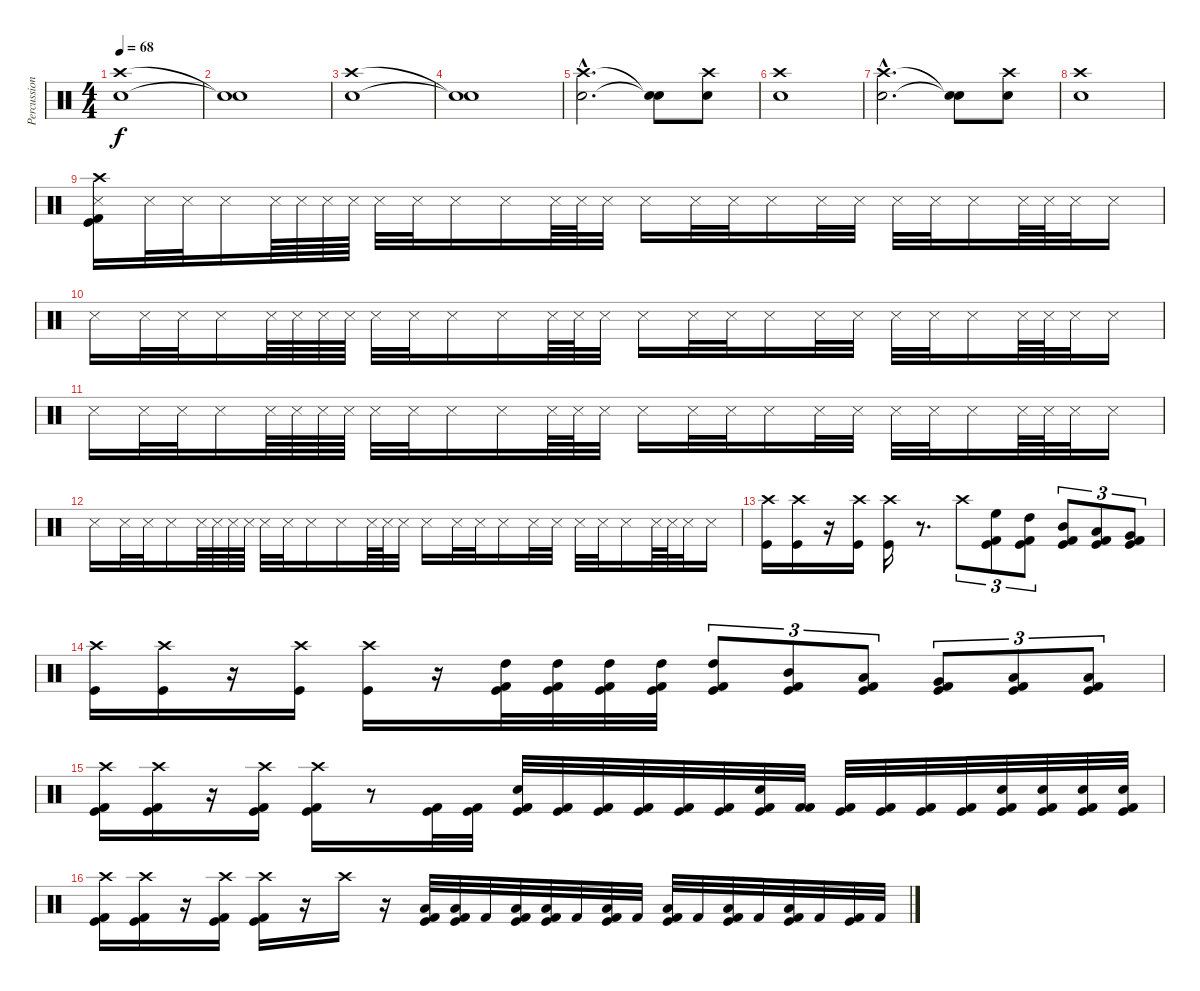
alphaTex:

\track ("Percussion" "Percussion") {instrument percussion}
\staff {score}
\articulation defaults
\ts (4 4)
\tempo 68
\clef neutral
\ks c
("Snare (hit) 2" "Crash high (hit)").1{dy f} |
("Snare (hit)"{t} "Snare (hit)"{t}).1 |
("Snare (hit) 2" "Crash high (hit)").1 |
("Snare (hit)"{t} "Snare (hit)"{t}).1 |
("Snare (hit) 2"{hac} "Crash high (hit)"{hac}).2{d} ("Snare (hit)"{t} "Snare (hit)"{t}).8 ("Snare (hit) 2" "Crash high (hit)").8 |
("Snare (hit) 2" "Crash high (hit)").1 |
("Snare (hit) 2"{hac} "Crash high (hit)"{hac}).2{d} ("Snare (hit)"{t} "Snare (hit)"{t}).8 ("Snare (hit) 2" "Crash high (hit)").8 |
("Snare (hit) 2" "Crash high (hit)").1 |
\section ("" "")
("Kick (hit)" "Kick (hit) 2" "Snare (side stick) 3" "Crash high (hit)").16{balance 3} "Snare (side stick) 3".32 "Snare (side stick) 3".32 "Snare (side stick) 3".16 "Snare (side stick) 3".64 "Snare (side stick) 3".64 "Snare (side stick) 3".64 "Snare (side stick) 3".64 "Snare (side stick) 3".32 "Snare (side stick) 3".32 "Snare (side stick) 3".16 "Snare (side stick) 3".16 "Snare (side stick) 3".64 "Snare (side stick) 3".64 "Snare (side stick) 3".32 "Snare (side stick) 3".16{balance 13} "Snare (side stick) 3".32 "Snare (side stick) 3".32 "Snare (side stick) 3".16 "Snare (side stick) 3".32 "Snare (side stick) 3".32 "Snare (side stick) 3".32 "Snare (side stick) 3".32 "Snare (side stick) 3".16 "Snare (side stick) 3".64 "Snare (side stick) 3".64 "Snare (side stick) 3".32 "Snare (side stick) 3".16 |
"Snare (side stick) 3".16{balance 3} "Snare (side stick) 3".32 "Snare (side stick) 3".32 "Snare (side stick) 3".16 "Snare (side stick) 3".64 "Snare (side stick) 3".64 "Snare (side stick) 3".64 "Snare (side stick) 3".64 "Snare (side stick) 3".32 "Snare (side stick) 3".32 "Snare (side stick) 3".16 "Snare (side stick) 3".16 "Snare (side stick) 3".64 "Snare (side stick) 3".64 "Snare (side stick) 3".32 "Snare (side stick) 3".16{balance 13} "Snare (side stick) 3".32 "Snare (side stick) 3".32 "Snare (side stick) 3".16 "Snare (side stick) 3".32 "Snare (side stick) 3".32 "Snare (side stick) 3".32 "Snare (side stick) 3".32 "Snare (side stick) 3".16 "Snare (side stick) 3".64 "Snare (side stick) 3".64 "Snare (side stick) 3".32 "Snare (side stick) 3".16 |
"Snare (side stick) 3".16{balance 3} "Snare (side stick) 3".32 "Snare (side stick) 3".32 "Snare (side stick) 3".16 "Snare (side stick) 3".64 "Snare (side stick) 3".64 "Snare (side stick) 3".64 "Snare (side stick) 3".64 "Snare (side stick) 3".32 "Snare (side stick) 3".32 "Snare (side stick) 3".16 "Snare (side stick) 3".16 "Snare (side stick) 3".64 "Snare (side stick) 3".64 "Snare (side stick) 3".32 "Snare (side stick) 3".16{balance 13} "Snare (side stick) 3".32 "Snare (side stick) 3".32 "Snare (side stick) 3".16 "Snare (side stick) 3".32 "Snare (side stick) 3".32 "Snare (side stick) 3".32 "Snare (side stick) 3".32 "Snare (side stick) 3".16 "Snare (side stick) 3".64 "Snare (side stick) 3".64 "Snare (side stick) 3".32 "Snare (side stick) 3".16 |
"Snare (side stick) 3".16{balance 3} "Snare (side stick) 3".32 "Snare (side stick) 3".32 "Snare (side stick) 3".16 "Snare (side stick) 3".64 "Snare (side stick) 3".64 "Snare (side stick) 3".64 "Snare (side stick) 3".64 "Snare (side stick) 3".32 "Snare (side stick) 3".32 "Snare (side stick) 3".16 "Snare (side stick) 3".16 "Snare (side stick) 3".64 "Snare (side stick) 3".64 "Snare (side stick) 3".32 "Snare (side stick) 3".16{balance 13} "Snare (side stick) 3".32 "Snare (side stick) 3".32 "Snare (side stick) 3".16 "Snare (side stick) 3".32 "Snare (side stick) 3".32 "Snare (side stick) 3".32 "Snare (side stick) 3".32 "Snare (side stick) 3".16 "Snare (side stick) 3".64 "Snare (side stick) 3".64 "Snare (side stick) 3".32 "Snare (side stick) 3".16 |
("Kick (hit)" "Crash high (hit)").16{balance 8} ("Kick (hit)" "Crash high (hit)").16 r.16 ("Kick (hit)" "Crash high (hit)").16 ("Kick (hit)" "Crash high (hit)").16 r.8{d} "Crash high (hit)".8{tu (3 2)} ("Kick (hit)" "Kick (hit) 2" "High Floor Tom (hit)").8{tu (3 2)} ("Kick (hit)" "Kick (hit) 2" "High Tom (hit)").8{tu (3 2)} ("Kick (hit)" "Kick (hit) 2" "Mid Tom (hit)").8{tu (3 2)} ("Kick (hit)" "Kick (hit) 2" "Low Tom (hit)").8{tu (3 2)} ("Kick (hit)" "Kick (hit) 2" "Very Low Tom (hit)").8{tu (3 2)} |
("Kick (hit)" "Crash high (hit)").16 ("Kick (hit)" "Crash high (hit)").16 r.16 ("Kick (hit)" "Crash high (hit)").16 ("Kick (hit)" "Crash high (hit)").16 r.16 ("Kick (hit)" "Kick (hit) 2" "High Tom (hit)").32 ("Kick (hit)" "Kick (hit) 2" "High Tom (hit)").32 ("Kick (hit)" "Kick (hit) 2" "High Tom (hit)").32 ("Kick (hit)" "Kick (hit) 2" "High Tom (hit)").32 ("Kick (hit)" "Kick (hit) 2" "High Tom (hit)").8{tu (3 2)} ("Kick (hit)" "Kick (hit) 2" "Mid Tom (hit)").8{tu (3 2)} ("Kick (hit)" "Kick (hit) 2" "Low Tom (hit)").8{tu (3 2)} ("Kick (hit)" "Kick (hit) 2" "Very Low Tom (hit)").8{tu (3 2)} ("Kick (hit)" "Kick (hit) 2" "Low Floor Tom (hit)").8{tu (3 2)} ("Kick (hit)" "Kick (hit) 2" "Low Floor Tom (hit)").8{tu (3 2)} |
("Kick (hit)" "Kick (hit) 2" "Crash high (hit)").16 ("Kick (hit)" "Kick (hit) 2" "Crash high (hit)").16 r.16 ("Kick (hit)" "Kick (hit) 2" "Crash high (hit)").16 ("Kick (hit)" "Kick (hit) 2" "Crash high (hit)").16 r.8 ("Kick (hit)" "Kick (hit) 2").32 ("Kick (hit)" "Kick (hit) 2").32 ("Kick (hit)" "Kick (hit) 2" "Snare (hit) 2").32 ("Kick (hit)" "Kick (hit) 2").32 ("Kick (hit)" "Kick (hit) 2").32 ("Kick (hit)" "Kick (hit) 2").32 ("Kick (hit)" "Kick (hit) 2").32 ("Kick (hit)" "Kick (hit) 2").32 ("Kick (hit)" "Kick (hit) 2" "Snare (hit) 2").32 ("Kick (hit) 2" "Kick (hit) 2").32 ("Kick (hit)" "Kick (hit) 2").32 ("Kick (hit)" "Kick (hit) 2").32 ("Kick (hit)" "Kick (hit) 2").32 ("Kick (hit)" "Kick (hit) 2").32 ("Kick (hit)" "Kick (hit) 2" "Snare (hit) 2").32 ("Kick (hit)" "Kick (hit) 2" "Snare (hit) 2").32 ("Kick (hit)" "Kick (hit) 2" "Snare (hit) 2").32 ("Kick (hit)" "Kick (hit) 2" "Snare (hit) 2").32 |
("Kick (hit)" "Kick (hit) 2" "Crash high (hit)").16 ("Kick (hit)" "Kick (hit) 2" "Crash high (hit)").16 r.16 ("Kick (hit)" "Kick (hit) 2" "Crash high (hit)").16 ("Kick (hit)" "Kick (hit) 2" "Crash high (hit)").16 r.16 "Crash high (hit)".16 r.16 ("Kick (hit)" "Kick (hit) 2" "Low Tom (hit)").32 ("Kick (hit)" "Kick (hit) 2" "Low Tom (hit)").32 "Kick (hit) 2".32 ("Kick (hit)" "Kick (hit) 2" "Low Tom (hit)").32 ("Kick (hit)" "Kick (hit) 2" "Low Tom (hit)").32 "Kick (hit) 2".32 ("Kick (hit)" "Kick (hit) 2" "Low Tom (hit)").32 "Kick (hit) 2".32 ("Kick (hit)" "Kick (hit) 2" "Low Tom (hit)").32 "Kick (hit) 2".32 ("Kick (hit)" "Kick (hit) 2" "Low Tom (hit)").32 "Kick (hit) 2".32 ("Kick (hit)" "Kick (hit) 2" "Low Tom (hit)").32 "Kick (hit) 2".32 ("Kick (hit)" "Kick (hit) 2").32 "Kick (hit) 2".32
